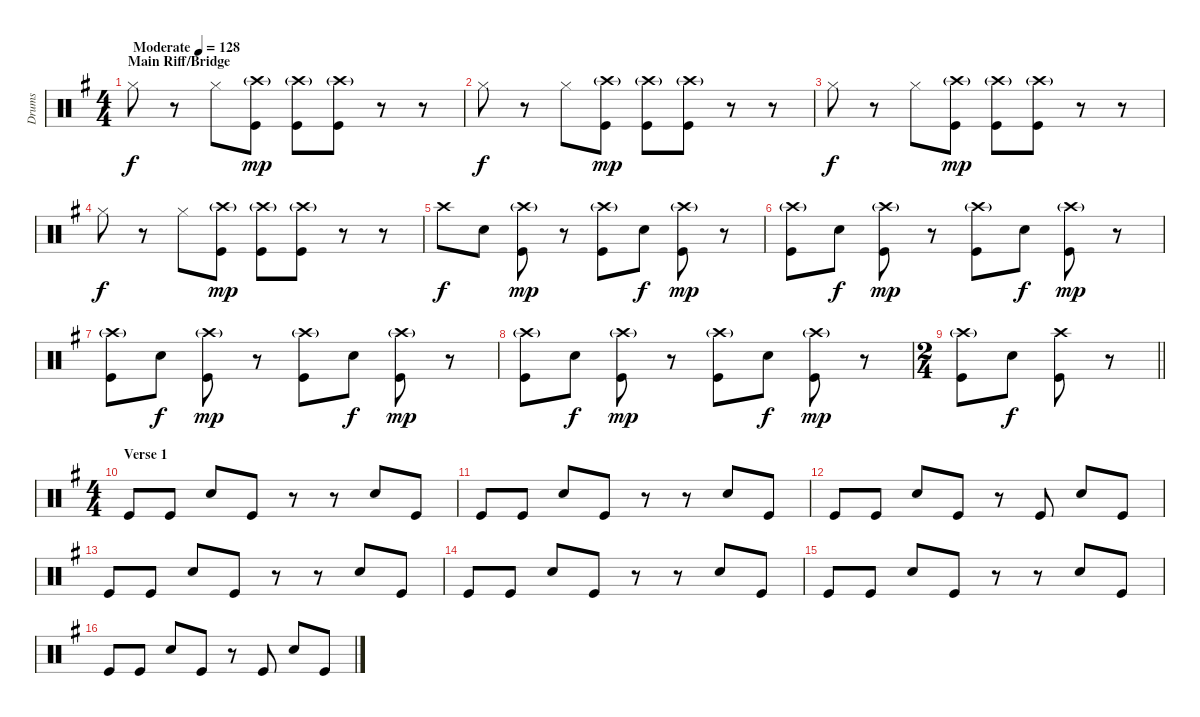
\track ("Drums" "Drums") {instrument percussion}
\staff {score}
\articulation defaults
\ts (4 4)
\section ("" "Main Riff/Bridge")
\tempo (128 "Moderate")
\clef neutral
\ks g "Hi-Hat (closed)".8{dy f}
r.8 "Hi-Hat (closed)".8 ("Crash high (hit)"{g} "Kick (hit)").8{dy mp} ("Crash high (hit)"{g} "Kick (hit)").8 ("Crash high (hit)"{g} "Kick (hit)").8 r.8 r.8 |
"Hi-Hat (closed)".8{dy f} r.8 "Hi-Hat (closed)".8 ("Crash high (hit)"{g} "Kick (hit)").8{dy mp} ("Crash high (hit)"{g} "Kick (hit)").8 ("Crash high (hit)"{g} "Kick (hit)").8 r.8 r.8 |
"Hi-Hat (closed)".8{dy f} r.8 "Hi-Hat (closed)".8 ("Crash high (hit)"{g} "Kick (hit)").8{dy mp} ("Crash high (hit)"{g} "Kick (hit)").8 ("Crash high (hit)"{g} "Kick (hit)").8 r.8 r.8 |
"Hi-Hat (closed)".8{dy f} r.8 "Hi-Hat (closed)".8 ("Crash high (hit)"{g} "Kick (hit)").8{dy mp} ("Crash high (hit)"{g} "Kick (hit)").8 ("Crash high (hit)"{g} "Kick (hit)").8 r.8 r.8 |
"Crash high (hit)".8{dy f} "Electric Snare (hit)".8 ("Crash high (hit)"{g} "Kick (hit)").8{dy mp} r.8 ("Crash high (hit)"{g} "Kick (hit)").8 "Electric Snare (hit)".8{dy f} ("Crash high (hit)"{g} "Kick (hit)").8{dy mp} r.8 |
("Crash high (hit)"{g} "Kick (hit)").8 "Electric Snare (hit)".8{dy f} ("Crash high (hit)"{g} "Kick (hit)").8{dy mp} r.8 ("Crash high (hit)"{g} "Kick (hit)").8 "Electric Snare (hit)".8{dy f} ("Crash high (hit)"{g} "Kick (hit)").8{dy mp} r.8 |
("Crash high (hit)"{g} "Kick (hit)").8 "Electric Snare (hit)".8{dy f} ("Crash high (hit)"{g} "Kick (hit)").8{dy mp} r.8 ("Crash high (hit)"{g} "Kick (hit)").8 "Electric Snare (hit)".8{dy f} ("Crash high (hit)"{g} "Kick (hit)").8{dy mp} r.8 |
("Crash high (hit)"{g} "Kick (hit)").8 "Electric Snare (hit)".8{dy f} ("Crash high (hit)"{g} "Kick (hit)").8{dy mp} r.8 ("Crash high (hit)"{g} "Kick (hit)").8 "Electric Snare (hit)".8{dy f} ("Crash high (hit)"{g} "Kick (hit)").8{dy mp} r.8 |
\ts (2 4)
\barLineRight lightlight
("Crash high (hit)"{g} "Kick (hit)").8 "Electric Snare (hit)".8{dy f} ("Crash high (hit)" "Kick (hit)").8 r.8 |
\ts (4 4)
\section ("" "Verse 1")
"Kick (hit)".8 "Kick (hit)".8 "Electric Snare (hit)".8 "Kick (hit)".8 r.8 r.8 "Electric Snare (hit)".8 "Kick (hit)".8 |
"Kick (hit)".8 "Kick (hit)".8 "Electric Snare (hit)".8 "Kick (hit)".8 r.8 r.8 "Electric Snare (hit)".8 "Kick (hit)".8 |
"Kick (hit)".8 "Kick (hit)".8 "Electric Snare (hit)".8 "Kick (hit)".8 r.8 "Kick (hit)".8 "Electric Snare (hit)".8 "Kick (hit)".8 |
"Kick (hit)".8 "Kick (hit)".8 "Electric Snare (hit)".8 "Kick (hit)".8 r.8 r.8 "Electric Snare (hit)".8 "Kick (hit)".8 |
"Kick (hit)".8 "Kick (hit)".8 "Electric Snare (hit)".8 "Kick (hit)".8 r.8 r.8 "Electric Snare (hit)".8 "Kick (hit)".8 |
"Kick (hit)".8 "Kick (hit)".8 "Electric Snare (hit)".8 "Kick (hit)".8 r.8 r.8 "Electric Snare (hit)".8 "Kick (hit)".8 |
"Kick (hit)".8 "Kick (hit)".8 "Electric Snare (hit)".8 "Kick (hit)".8 r.8 "Kick (hit)".8 "Electric Snare (hit)".8 "Kick (hit)".8
